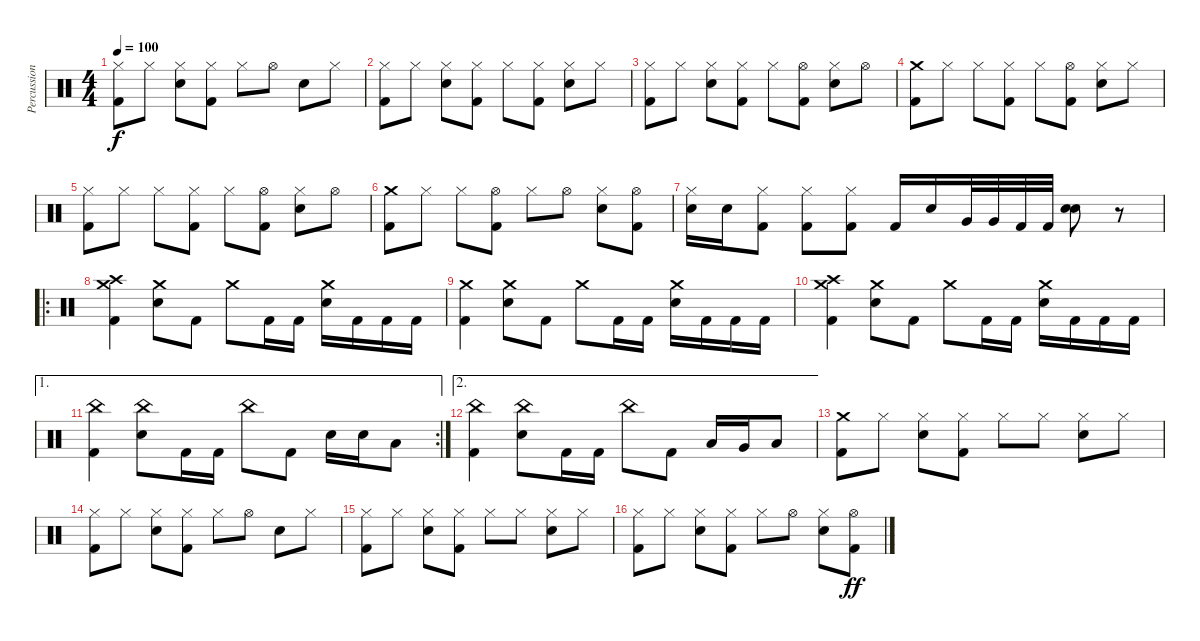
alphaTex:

\track ("Percussion" "Percussion") {instrument percussion}
\staff {score}
\articulation defaults
\ts (4 4)
\tempo 100
\clef neutral
\ks c
("Hi-Hat (closed)" "Kick (hit) 2").8{dy f} "Hi-Hat (closed)".8 ("Hi-Hat (closed)" "Electric Snare (hit)").8 ("Hi-Hat (closed)" "Kick (hit) 2").8 "Hi-Hat (closed)".8 "Hi-Hat (open)".8 "Electric Snare (hit)".8 "Hi-Hat (closed)".8 |
("Hi-Hat (closed)" "Kick (hit) 2").8 "Hi-Hat (closed)".8 ("Hi-Hat (closed)" "Electric Snare (hit)").8 ("Hi-Hat (closed)" "Kick (hit) 2").8 "Hi-Hat (closed)".8 ("Hi-Hat (closed)" "Kick (hit) 2").8 ("Hi-Hat (closed)" "Electric Snare (hit)").8 "Hi-Hat (closed)".8 |
("Hi-Hat (closed)" "Kick (hit) 2").8 "Hi-Hat (closed)".8 ("Hi-Hat (closed)" "Electric Snare (hit)").8 ("Hi-Hat (closed)" "Kick (hit) 2").8 "Hi-Hat (closed)".8 ("Hi-Hat (open)" "Kick (hit) 2").8 ("Hi-Hat (closed)" "Electric Snare (hit)").8 "Hi-Hat (open)".8 |
("Crash medium (hit)" "Kick (hit) 2").8 "Hi-Hat (closed)".8 "Hi-Hat (closed)".8 ("Hi-Hat (closed)" "Kick (hit) 2").8 "Hi-Hat (closed)".8 ("Hi-Hat (open)" "Kick (hit) 2").8 ("Hi-Hat (closed)" "Electric Snare (hit)").8 "Hi-Hat (closed)".8 |
("Hi-Hat (closed)" "Kick (hit) 2").8 "Hi-Hat (closed)".8 "Hi-Hat (closed)".8 ("Hi-Hat (closed)" "Kick (hit) 2").8 "Hi-Hat (closed)".8 ("Hi-Hat (open)" "Kick (hit) 2").8 ("Hi-Hat (closed)" "Electric Snare (hit)").8 "Hi-Hat (open)".8 |
("Crash medium (hit)" "Kick (hit) 2").8 "Hi-Hat (closed)".8 "Hi-Hat (closed)".8 ("Hi-Hat (open)" "Kick (hit) 2").8 "Hi-Hat (closed)".8 "Hi-Hat (open)".8 ("Hi-Hat (closed)" "Electric Snare (hit)").8 ("Hi-Hat (open)" "Kick (hit) 2").8 |
("Hi-Hat (closed)" "Electric Snare (hit)").16 "Electric Snare (hit)".16 ("Hi-Hat (closed)" "Kick (hit) 2").8 ("Hi-Hat (closed)" "Kick (hit) 2").8 ("Hi-Hat (closed)" "Kick (hit) 2").8 "Kick (hit) 2".16 "Electric Snare (hit)".16 "Very Low Tom (hit)".32 "Very Low Tom (hit)".32 "Kick (hit) 2".32 "Kick (hit) 2".32 ("Electric Snare (hit)" "Electric Snare (hit)").8{bd 60} r.8 |
\ro
("Crash medium (hit)" "Crash high (hit)" "Kick (hit) 2").4 ("Crash medium (hit)" "Electric Snare (hit)").8 "Kick (hit) 2".8 "Crash medium (hit)".8 "Kick (hit) 2".16 "Kick (hit) 2".16 ("Crash medium (hit)" "Electric Snare (hit)").16 "Kick (hit) 2".16 "Kick (hit) 2".16 "Kick (hit) 2".16 |
("Crash medium (hit)" "Kick (hit) 2").4 ("Crash medium (hit)" "Electric Snare (hit)").8 "Kick (hit) 2".8 "Crash medium (hit)".8 "Kick (hit) 2".16 "Kick (hit) 2".16 ("Crash medium (hit)" "Electric Snare (hit)").16 "Kick (hit) 2".16 "Kick (hit) 2".16 "Kick (hit) 2".16 |
("Crash medium (hit)" "Crash high (hit)" "Kick (hit) 2").4 ("Crash medium (hit)" "Electric Snare (hit)").8 "Kick (hit) 2".8 "Crash medium (hit)".8 "Kick (hit) 2".16 "Kick (hit) 2".16 ("Crash medium (hit)" "Electric Snare (hit)").16 "Kick (hit) 2".16 "Kick (hit) 2".16 "Kick (hit) 2".16 |
\ae 1
\rc 2
("China (hit)" "Kick (hit) 2").4 ("China (hit)" "Electric Snare (hit)").8 "Kick (hit) 2".16 "Kick (hit) 2".16 "China (hit)".8 "Kick (hit) 2".8 "Electric Snare (hit)".16 "Electric Snare (hit)".16 "Low Floor Tom (hit)".8 |
\ae 2
("China (hit)" "Kick (hit) 2").4 ("China (hit)" "Electric Snare (hit)").8 "Kick (hit) 2".16 "Kick (hit) 2".16 "China (hit)".8 "Kick (hit) 2".8 "Low Tom (hit)".16 "Very Low Tom (hit)".16 "Low Floor Tom (hit)".8 |
("Crash medium (hit)" "Kick (hit) 2").8 "Hi-Hat (closed)".8 ("Hi-Hat (closed)" "Electric Snare (hit)").8 ("Hi-Hat (closed)" "Kick (hit) 2").8 "Hi-Hat (closed)".8 "Hi-Hat (closed)".8 ("Hi-Hat (closed)" "Electric Snare (hit)").8 "Hi-Hat (closed)".8 |
("Hi-Hat (closed)" "Kick (hit) 2").8 "Hi-Hat (closed)".8 ("Hi-Hat (closed)" "Electric Snare (hit)").8 ("Hi-Hat (closed)" "Kick (hit) 2").8 "Hi-Hat (closed)".8 "Hi-Hat (open)".8 "Electric Snare (hit)".8 "Hi-Hat (closed)".8 |
("Hi-Hat (closed)" "Kick (hit) 2").8 "Hi-Hat (closed)".8 ("Hi-Hat (closed)" "Electric Snare (hit)").8 ("Hi-Hat (closed)" "Kick (hit) 2").8 "Hi-Hat (closed)".8 "Hi-Hat (closed)".8 ("Hi-Hat (closed)" "Electric Snare (hit)").8 "Hi-Hat (closed)".8 |
("Hi-Hat (closed)" "Kick (hit) 2").8 "Hi-Hat (closed)".8 ("Hi-Hat (closed)" "Electric Snare (hit)").8 ("Hi-Hat (closed)" "Kick (hit) 2").8 "Hi-Hat (closed)".8 "Hi-Hat (open)".8 ("Hi-Hat (closed)" "Electric Snare (hit)").8 ("Hi-Hat (open)" "Kick (hit) 2").8{dy ff}
